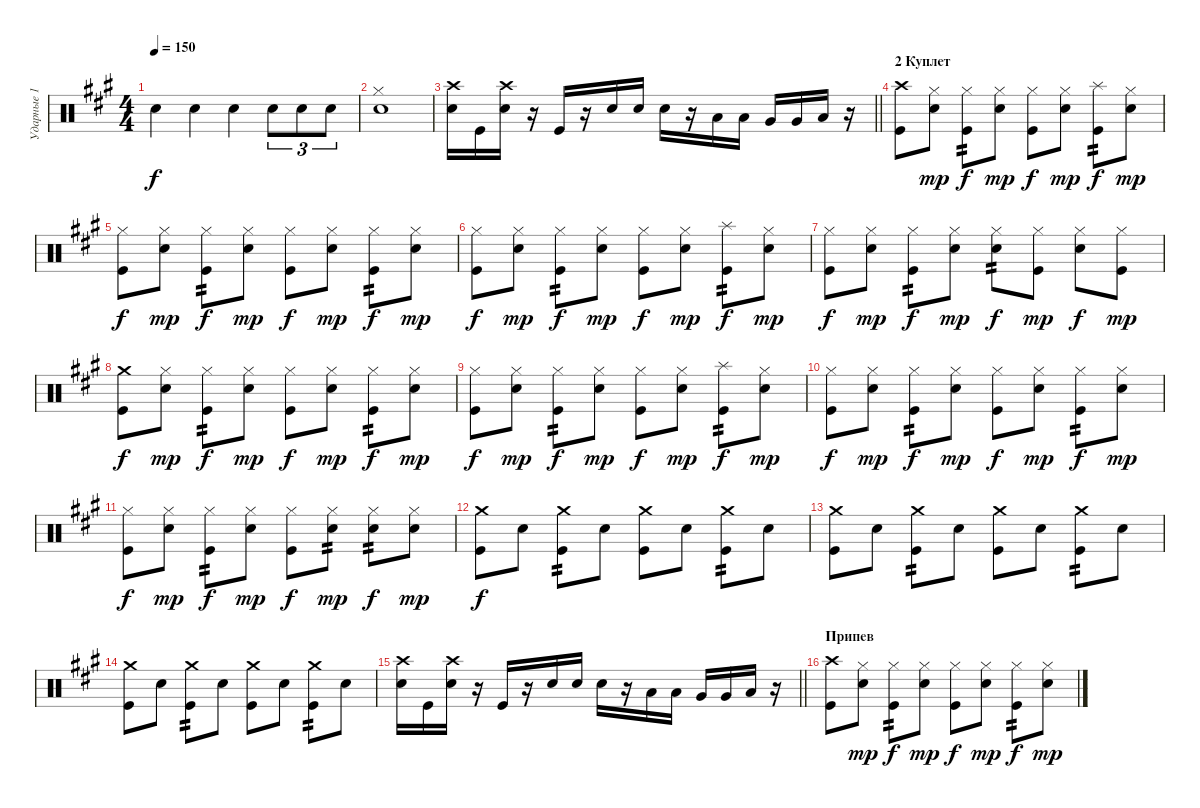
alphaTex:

\track ("Ударные 1" "Ударные 1") {instrument percussion}
\staff {score}
\articulation defaults
\ts (4 4)
\tempo 150
\clef neutral
\ks f#minor "Snare (hit) 2".4{dy f} "Snare (hit) 2".4 "Snare (hit) 2".4 "Snare (hit) 2".8{tu (3 2)} "Snare (hit) 2".8{tu (3 2)} "Snare (hit) 2".8{tu (3 2)}
|
("Hi-Hat (closed)" "Snare (hit) 2").1 |
\barLineRight lightlight
("Crash high (hit)" "Snare (hit) 2").16 "Kick (hit)".16 ("Crash high (hit)" "Snare (hit) 2").16 r.16 "Kick (hit)".16 r.16 "Snare (hit) 2".16 "Snare (hit) 2".16 "Snare (hit) 2".16 r.16 "Low Tom (hit)".16 "Low Tom (hit)".16 "Very Low Tom (hit)".16 "Very Low Tom (hit)".16 "Low Floor Tom (hit)".16 r.16 |
\section ("" "2 Куплет")
("Crash high (hit)" "Kick (hit)").8 ("Hi-Hat (closed)" "Snare (hit) 2").8{dy mp} ("Hi-Hat (closed)" "Kick (hit)").8{tp 2 dy f} ("Hi-Hat (closed)" "Snare (hit) 2").8{dy mp} ("Hi-Hat (closed)" "Kick (hit)").8{dy f} ("Hi-Hat (closed)" "Snare (hit) 2").8{dy mp} ("Splash (hit)" "Kick (hit)").8{tp 2 dy f} ("Hi-Hat (closed)" "Snare (hit) 2").8{dy mp} |
("Hi-Hat (closed)" "Kick (hit)").8{dy f} ("Hi-Hat (closed)" "Snare (hit) 2").8{dy mp} ("Hi-Hat (closed)" "Kick (hit)").8{tp 2 dy f} ("Hi-Hat (closed)" "Snare (hit) 2").8{dy mp} ("Hi-Hat (closed)" "Kick (hit)").8{dy f} ("Hi-Hat (closed)" "Snare (hit) 2").8{dy mp} ("Hi-Hat (closed)" "Kick (hit)").8{tp 2 dy f} ("Hi-Hat (closed)" "Snare (hit) 2").8{dy mp} |
("Hi-Hat (closed)" "Kick (hit)").8{dy f} ("Hi-Hat (closed)" "Snare (hit) 2").8{dy mp} ("Hi-Hat (closed)" "Kick (hit)").8{tp 2 dy f} ("Hi-Hat (closed)" "Snare (hit) 2").8{dy mp} ("Hi-Hat (closed)" "Kick (hit)").8{dy f} ("Hi-Hat (closed)" "Snare (hit) 2").8{dy mp} ("Splash (hit)" "Kick (hit)").8{tp 2 dy f} ("Hi-Hat (closed)" "Snare (hit) 2").8{dy mp} |
("Hi-Hat (closed)" "Kick (hit)").8{dy f} ("Hi-Hat (closed)" "Snare (hit) 2").8{dy mp} ("Hi-Hat (closed)" "Kick (hit)").8{tp 2 dy f} ("Hi-Hat (closed)" "Snare (hit) 2").8{dy mp} ("Hi-Hat (closed)" "Snare (hit) 2").8{tp 2 dy f} ("Hi-Hat (closed)" "Kick (hit)").8{dy mp} ("Hi-Hat (closed)" "Snare (hit) 2").8{dy f} ("Hi-Hat (closed)" "Kick (hit)").8{dy mp} |
("Crash medium (hit)" "Kick (hit)").8{dy f} ("Hi-Hat (closed)" "Snare (hit) 2").8{dy mp} ("Hi-Hat (closed)" "Kick (hit)").8{tp 2 dy f} ("Hi-Hat (closed)" "Snare (hit) 2").8{dy mp} ("Hi-Hat (closed)" "Kick (hit)").8{dy f} ("Hi-Hat (closed)" "Snare (hit) 2").8{dy mp} ("Hi-Hat (closed)" "Kick (hit)").8{tp 2 dy f} ("Hi-Hat (closed)" "Snare (hit) 2").8{dy mp} |
("Hi-Hat (closed)" "Kick (hit)").8{dy f} ("Hi-Hat (closed)" "Snare (hit) 2").8{dy mp} ("Hi-Hat (closed)" "Kick (hit)").8{tp 2 dy f} ("Hi-Hat (closed)" "Snare (hit) 2").8{dy mp} ("Hi-Hat (closed)" "Kick (hit)").8{dy f} ("Hi-Hat (closed)" "Snare (hit) 2").8{dy mp} ("Splash (hit)" "Kick (hit)").8{tp 2 dy f} ("Hi-Hat (closed)" "Snare (hit) 2").8{dy mp} |
("Hi-Hat (closed)" "Kick (hit)").8{dy f} ("Hi-Hat (closed)" "Snare (hit) 2").8{dy mp} ("Hi-Hat (closed)" "Kick (hit)").8{tp 2 dy f} ("Hi-Hat (closed)" "Snare (hit) 2").8{dy mp} ("Hi-Hat (closed)" "Kick (hit)").8{dy f} ("Hi-Hat (closed)" "Snare (hit) 2").8{dy mp} ("Hi-Hat (closed)" "Kick (hit)").8{tp 2 dy f} ("Hi-Hat (closed)" "Snare (hit) 2").8{dy mp} |
("Hi-Hat (closed)" "Kick (hit)").8{dy f} ("Hi-Hat (closed)" "Snare (hit) 2").8{dy mp} ("Hi-Hat (closed)" "Kick (hit)").8{tp 2 dy f} ("Hi-Hat (closed)" "Snare (hit) 2").8{dy mp} ("Hi-Hat (closed)" "Kick (hit)").8{dy f} ("Hi-Hat (closed)" "Snare (hit) 2").8{tp 2 dy mp} ("Hi-Hat (closed)" "Snare (hit) 2").8{tp 2 dy f} ("Hi-Hat (closed)" "Snare (hit) 2").8{dy mp} |
("Crash medium (hit)" "Kick (hit)").8{dy f} "Snare (hit) 2".8 ("Crash medium (hit)" "Kick (hit)").8{tp 2} "Snare (hit) 2".8 ("Crash medium (hit)" "Kick (hit)").8 "Snare (hit) 2".8 ("Crash medium (hit)" "Kick (hit)").8{tp 2} "Snare (hit) 2".8 |
("Crash medium (hit)" "Kick (hit)").8 "Snare (hit) 2".8 ("Crash medium (hit)" "Kick (hit)").8{tp 2} "Snare (hit) 2".8 ("Crash medium (hit)" "Kick (hit)").8 "Snare (hit) 2".8 ("Crash medium (hit)" "Kick (hit)").8{tp 2} "Snare (hit) 2".8 |
("Crash medium (hit)" "Kick (hit)").8 "Snare (hit) 2".8 ("Crash medium (hit)" "Kick (hit)").8{tp 2} "Snare (hit) 2".8 ("Crash medium (hit)" "Kick (hit)").8 "Snare (hit) 2".8 ("Crash medium (hit)" "Kick (hit)").8{tp 2} "Snare (hit) 2".8 |
\barLineRight lightlight
("Crash high (hit)" "Snare (hit) 2").16 "Kick (hit)".16 ("Crash high (hit)" "Snare (hit) 2").16 r.16 "Kick (hit)".16 r.16 "Snare (hit) 2".16 "Snare (hit) 2".16 "Snare (hit) 2".16 r.16 "Low Tom (hit)".16 "Low Tom (hit)".16 "Very Low Tom (hit)".16 "Very Low Tom (hit)".16 "Low Floor Tom (hit)".16 r.16 |
\section ("" "Припев")
("Crash high (hit)" "Kick (hit)").8 ("Hi-Hat (closed)" "Snare (hit) 2").8{dy mp} ("Hi-Hat (closed)" "Kick (hit)").8{tp 2 dy f} ("Hi-Hat (closed)" "Snare (hit) 2").8{dy mp} ("Hi-Hat (closed)" "Kick (hit)").8{dy f} ("Hi-Hat (closed)" "Snare (hit) 2").8{dy mp} ("Hi-Hat (closed)" "Kick (hit)").8{tp 2 dy f} ("Hi-Hat (closed)" "Snare (hit) 2").8{dy mp}
